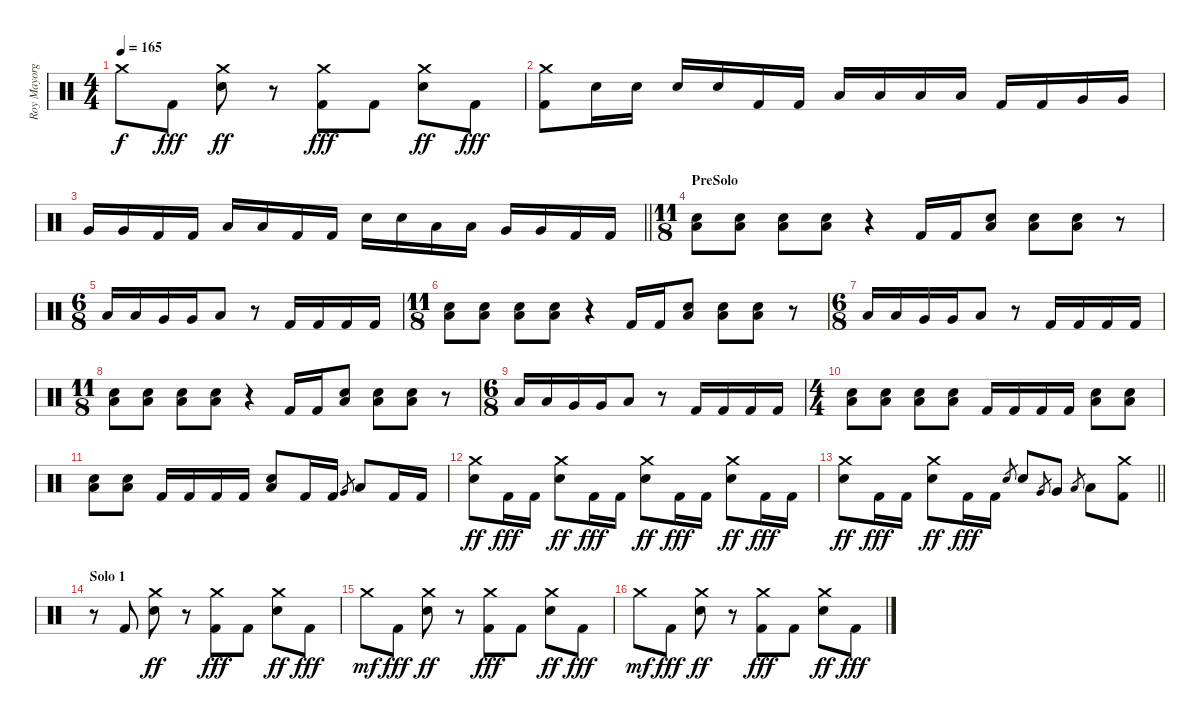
\track ("Roy Mayorga" "Roy Mayorg") {instrument percussion}
\staff {score}
\articulation defaults
\ts (4 4)
\tempo 165
\clef neutral
\ks c "Crash medium (hit)"{t}.8{dy f} "Kick (hit) 2".8{dy fff}
("Crash medium (hit)" "Electric Snare (hit)").8{dy ff} r.8 ("Crash medium (hit)" "Kick (hit) 2").8{dy fff} "Kick (hit) 2".8 ("Crash medium (hit)" "Electric Snare (hit)").8{dy ff} "Kick (hit) 2".8{dy fff} |
("Crash medium (hit)" "Kick (hit) 2").8 "Electric Snare (hit)".16 "Electric Snare (hit)".16 "Electric Snare (hit)".16 "Electric Snare (hit)".16 "Kick (hit) 2".16 "Kick (hit) 2".16 "Low Tom (hit)".16 "Low Tom (hit)".16 "Low Tom (hit)".16 "Low Tom (hit)".16 "Kick (hit) 2".16 "Kick (hit) 2".16 "Very Low Tom (hit)".16 "Very Low Tom (hit)".16 |
\barLineRight lightlight "Very Low Tom (hit)".16 "Very Low Tom (hit)".16 "Kick (hit) 2".16 "Kick (hit) 2".16 "Low Floor Tom (hit)".16 "Low Floor Tom (hit)".16 "Kick (hit) 2".16 "Kick (hit) 2".16 "Electric Snare (hit)".16 "Electric Snare (hit)".16 "Low Tom (hit)".16 "Low Tom (hit)".16 "Very Low Tom (hit)".16 "Very Low Tom (hit)".16 "Kick (hit) 2".16 "Kick (hit) 2".16
|
\ts (11 8)
\section ("" "PreSolo")
("Electric Snare (hit)" "Low Floor Tom (hit)").8 ("Electric Snare (hit)" "Low Floor Tom (hit)").8 ("Electric Snare (hit)" "Low Floor Tom (hit)").8 ("Electric Snare (hit)" "Low Floor Tom (hit)").8 r.4 "Kick (hit) 2".16 "Kick (hit) 2".16 ("Electric Snare (hit)" "Low Floor Tom (hit)").8 ("Electric Snare (hit)" "Low Floor Tom (hit)").8 ("Electric Snare (hit)" "Low Floor Tom (hit)").8 r.8 |
\ts (6 8)
"Low Tom (hit)".16 "Low Tom (hit)".16 "Very Low Tom (hit)".16 "Very Low Tom (hit)".16 "Low Floor Tom (hit)".8 r.8 "Kick (hit) 2".16 "Kick (hit) 2".16 "Kick (hit) 2".16 "Kick (hit) 2".16 |
\ts (11 8)
("Electric Snare (hit)" "Low Floor Tom (hit)").8 ("Electric Snare (hit)" "Low Floor Tom (hit)").8 ("Electric Snare (hit)" "Low Floor Tom (hit)").8 ("Electric Snare (hit)" "Low Floor Tom (hit)").8 r.4 "Kick (hit) 2".16 "Kick (hit) 2".16 ("Electric Snare (hit)" "Low Floor Tom (hit)").8 ("Electric Snare (hit)" "Low Floor Tom (hit)").8 ("Electric Snare (hit)" "Low Floor Tom (hit)").8 r.8 |
\ts (6 8)
"Low Tom (hit)".16 "Low Tom (hit)".16 "Very Low Tom (hit)".16 "Very Low Tom (hit)".16 "Low Floor Tom (hit)".8 r.8 "Kick (hit) 2".16 "Kick (hit) 2".16 "Kick (hit) 2".16 "Kick (hit) 2".16 |
\ts (11 8)
("Electric Snare (hit)" "Low Floor Tom (hit)").8 ("Electric Snare (hit)" "Low Floor Tom (hit)").8 ("Electric Snare (hit)" "Low Floor Tom (hit)").8 ("Electric Snare (hit)" "Low Floor Tom (hit)").8 r.4 "Kick (hit) 2".16 "Kick (hit) 2".16 ("Electric Snare (hit)" "Low Floor Tom (hit)").8 ("Electric Snare (hit)" "Low Floor Tom (hit)").8 ("Electric Snare (hit)" "Low Floor Tom (hit)").8 r.8 |
\ts (6 8)
"Low Tom (hit)".16 "Low Tom (hit)".16 "Very Low Tom (hit)".16 "Very Low Tom (hit)".16 "Low Floor Tom (hit)".8 r.8 "Kick (hit) 2".16 "Kick (hit) 2".16 "Kick (hit) 2".16 "Kick (hit) 2".16 |
\ts (4 4)
("Electric Snare (hit)" "Low Floor Tom (hit)").8 ("Electric Snare (hit)" "Low Floor Tom (hit)").8 ("Electric Snare (hit)" "Low Floor Tom (hit)").8 ("Electric Snare (hit)" "Low Floor Tom (hit)").8 "Kick (hit) 2".16 "Kick (hit) 2".16 "Kick (hit) 2".16 "Kick (hit) 2".16 ("Electric Snare (hit)" "Low Floor Tom (hit)").8 ("Electric Snare (hit)" "Low Floor Tom (hit)").8 |
("Electric Snare (hit)" "Low Floor Tom (hit)").8 ("Electric Snare (hit)" "Low Floor Tom (hit)").8 "Kick (hit) 2".16 "Kick (hit) 2".16 "Kick (hit) 2".16 "Kick (hit) 2".16 ("Electric Snare (hit)" "Low Floor Tom (hit)").8 "Kick (hit) 2".16 "Kick (hit) 2".16 "Very Low Tom (hit)".8{gr} "Low Floor Tom (hit)".8 "Kick (hit) 2".16 "Kick (hit) 2".16 |
("Crash medium (hit)" "Electric Snare (hit)").8{dy ff} "Kick (hit) 2".16{dy fff} "Kick (hit) 2".16 ("Crash medium (hit)" "Electric Snare (hit)").8{dy ff} "Kick (hit) 2".16{dy fff} "Kick (hit) 2".16 ("Crash medium (hit)" "Electric Snare (hit)").8{dy ff} "Kick (hit) 2".16{dy fff} "Kick (hit) 2".16 ("Crash medium (hit)" "Electric Snare (hit)").8{dy ff} "Kick (hit) 2".16{dy fff} "Kick (hit) 2".16 |
\barLineRight lightlight
("Crash medium (hit)" "Electric Snare (hit)").8{dy ff} "Kick (hit) 2".16{dy fff} "Kick (hit) 2".16 ("Crash medium (hit)" "Electric Snare (hit)").8{dy ff} "Kick (hit) 2".16{dy fff} "Kick (hit) 2".16 "Electric Snare (hit)".8{gr} "Electric Snare (hit)".8 "Very Low Tom (hit)".8{gr} "Very Low Tom (hit)".8 "Low Floor Tom (hit)".8{gr} "Low Floor Tom (hit)".8 ("Crash medium (hit)" "Kick (hit) 2").8 |
\section ("" "Solo 1")
r.8 "Kick (hit) 2".8 ("Crash medium (hit)" "Electric Snare (hit)").8{dy ff} r.8 ("Crash medium (hit)" "Kick (hit) 2").8{dy fff} "Kick (hit) 2".8 ("Crash medium (hit)" "Electric Snare (hit)").8{dy ff} "Kick (hit) 2".8{dy fff} |
"Crash medium (hit)".8{dy mf} "Kick (hit) 2".8{dy fff} ("Crash medium (hit)" "Electric Snare (hit)").8{dy ff} r.8 ("Crash medium (hit)" "Kick (hit) 2").8{dy fff} "Kick (hit) 2".8 ("Crash medium (hit)" "Electric Snare (hit)").8{dy ff} "Kick (hit) 2".8{dy fff} |
"Crash medium (hit)".8{dy mf} "Kick (hit) 2".8{dy fff} ("Crash medium (hit)" "Electric Snare (hit)").8{dy ff} r.8 ("Crash medium (hit)" "Kick (hit) 2").8{dy fff} "Kick (hit) 2".8 ("Crash medium (hit)" "Electric Snare (hit)").8{dy ff} "Kick (hit) 2".8{dy fff}
